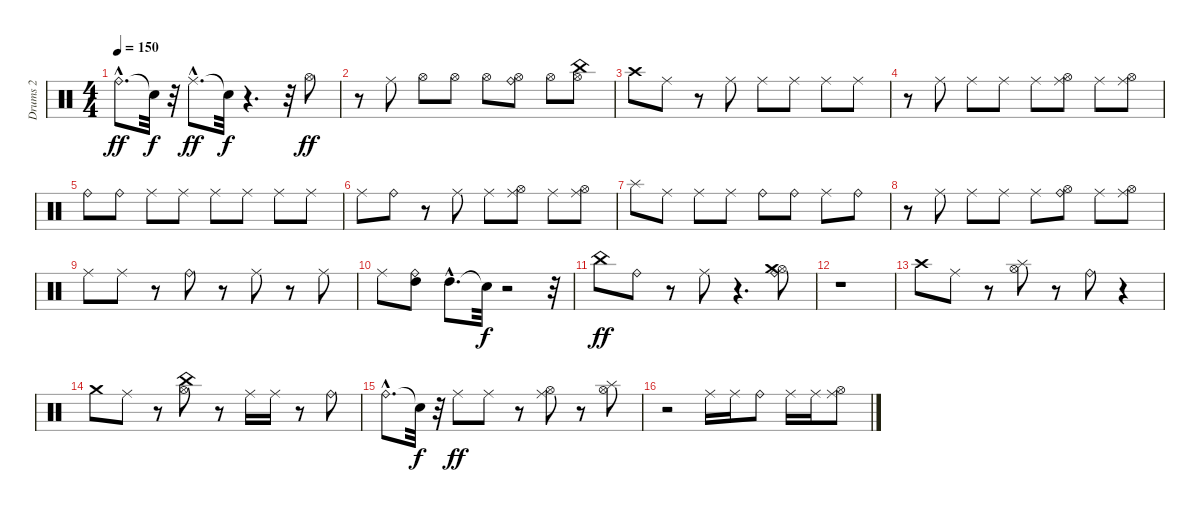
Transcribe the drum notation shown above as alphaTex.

\track ("Drums 2" "Drums 2") {instrument percussion}
\staff {score}
\articulation defaults
\ts (4 4)
\tempo 150
\clef neutral
\ks c "Ride (bell)"{hac}.8{d dy ff} "Snare (hit)"{t}.32{dy f}
r.32 "Ride (middle)"{hac}.8{d dy ff} "Snare (hit)"{t}.32{dy f} r.4{d} r.32 "Hi-Hat (open)".8{dy ff} |
r.8 "Ride (middle)".8 "Hi-Hat (open)".8 "Hi-Hat (open)".8 "Hi-Hat (open)".8 ("Hi-Hat (open)" "Ride (bell)").8 "Hi-Hat (open)".8 ("Hi-Hat (open)" "China (hit)").8 |
"Crash high (hit)".8 "Ride (middle)".8 r.8 "Ride (middle)".8 "Ride (middle)".8 "Ride (middle)".8 "Ride (middle)".8 "Ride (middle)".8 |
r.8 "Ride (middle)".8 "Ride (middle)".8 "Ride (middle)".8 "Ride (middle)".8 ("Hi-Hat (open)" "Ride (middle)").8 "Ride (middle)".8 ("Hi-Hat (open)" "Ride (middle)").8 |
"Ride (bell)".8 "Ride (bell)".8 "Ride (middle)".8 "Ride (middle)".8 "Ride (middle)".8 "Ride (middle)".8 "Ride (middle)".8 "Ride (middle)".8 |
"Ride (middle)".8 "Ride (bell)".8 r.8 "Ride (middle)".8 "Ride (middle)".8 ("Hi-Hat (open)" "Ride (middle)").8 "Ride (middle)".8 ("Hi-Hat (open)" "Ride (middle)").8 |
"Splash (hit)".8 "Ride (middle)".8 "Ride (middle)".8 "Ride (middle)".8 "Ride (bell)".8 "Ride (bell)".8 "Ride (middle)".8 "Ride (bell)".8 |
r.8 "Ride (middle)".8 "Ride (middle)".8 "Ride (middle)".8 "Ride (middle)".8 ("Hi-Hat (open)" "Ride (bell)").8 "Ride (middle)".8 ("Hi-Hat (open)" "Ride (middle)").8 |
"Ride (middle)".8 "Ride (middle)".8 r.8 "Ride (bell)".8 r.8 "Ride (middle)".8 r.8 "Ride (middle)".8 |
"Ride (middle)".8 ("High Tom (hit)" "Ride (bell)").8 "High Tom (hit)"{hac}.8{d} "Snare (hit)"{t}.32{dy f} r.2 r.32 |
"China (hit)".8{dy ff} "Ride (bell)".8 r.8 "Ride (middle)".8 r.4{d} ("Hi-Hat (open)" "Ride (bell)" "Crash medium (hit)").8 |
r.1 |
"Crash high (hit)".8 "Ride (middle)".8 r.8 ("Hi-Hat (open)" "Splash (hit)").8 r.8 "Ride (bell)".8 r.4 |
"Crash medium (hit)".8 "Ride (middle)".8 r.8 ("Hi-Hat (open)" "China (hit)").8 r.8 "Ride (middle)".16 "Ride (middle)".16 r.8 "Ride (bell)".8 |
"Ride (bell)"{hac}.8{d} "Snare (hit)"{t}.32{dy f} r.32 "Ride (middle)".8{dy ff} "Ride (middle)".8 r.8 ("Hi-Hat (open)" "Ride (middle)").8 r.8 ("Hi-Hat (open)" "Splash (hit)").8 |
r.2 "Ride (middle)".16 "Ride (middle)".16 "Ride (bell)".8 "Ride (middle)".16 "Ride (middle)".16 ("Hi-Hat (open)" "Ride (middle)").8
